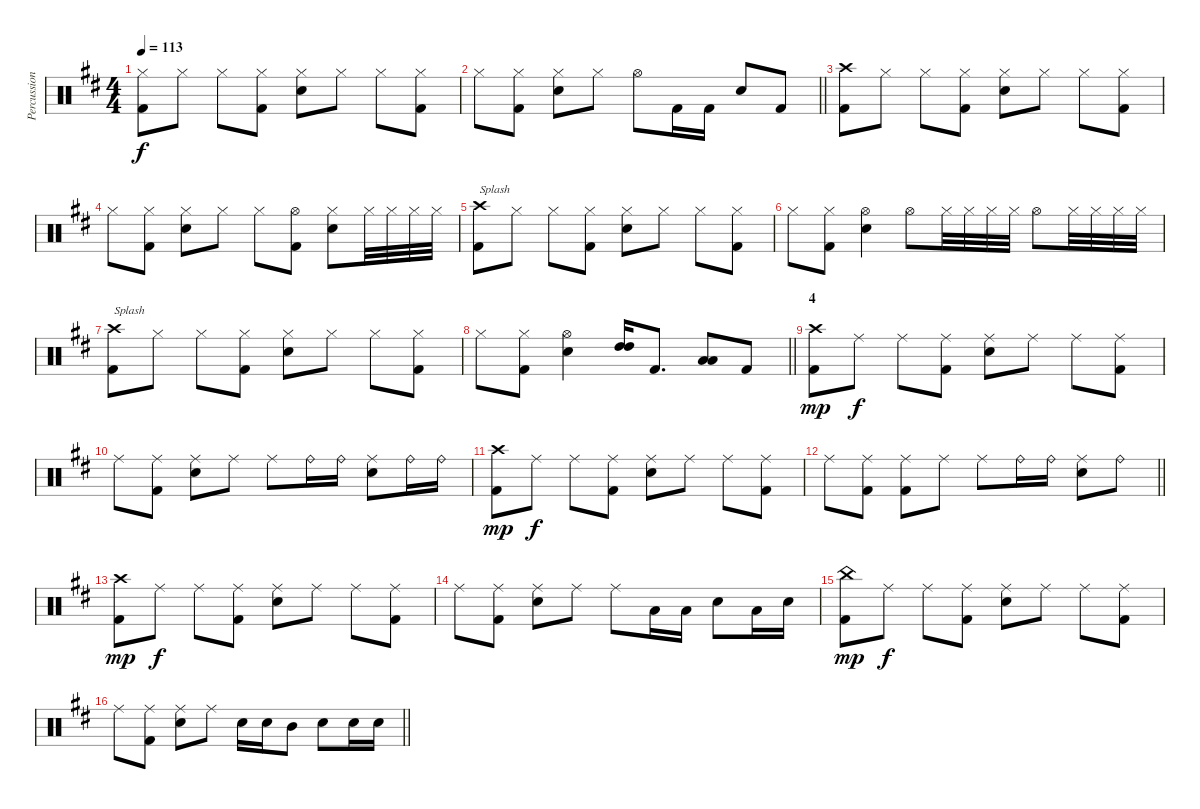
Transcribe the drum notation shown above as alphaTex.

\track ("Percussion" "Percussion") {instrument percussion}
\staff {score}
\articulation defaults
\ts (4 4)
\tempo 113
\clef neutral
\ks bminor
("Hi-Hat (closed)" "Kick (hit) 2").8{dy f} "Hi-Hat (closed)".8 "Hi-Hat (closed)".8 ("Hi-Hat (closed)" "Kick (hit) 2").8 ("Hi-Hat (closed)" "Snare (hit) 2").8 "Hi-Hat (closed)".8 "Hi-Hat (closed)".8 ("Hi-Hat (closed)" "Kick (hit) 2").8 |
\barLineRight lightlight "Hi-Hat (closed)".8
("Hi-Hat (closed)" "Kick (hit) 2").8 ("Hi-Hat (closed)" "Snare (hit) 2").8 "Hi-Hat (closed)".8 "Hi-Hat (open)".8 "Kick (hit) 2".16 "Kick (hit) 2".16 "Snare (hit) 2".8 "Kick (hit) 2".8 |
\section ("" "")
("Crash high (hit)" "Kick (hit) 2").8 "Hi-Hat (closed)".8 "Hi-Hat (closed)".8 ("Hi-Hat (closed)" "Kick (hit) 2").8 ("Hi-Hat (closed)" "Snare (hit) 2").8 "Hi-Hat (closed)".8 "Hi-Hat (closed)".8 ("Hi-Hat (closed)" "Kick (hit) 2").8 |
"Hi-Hat (closed)".8 ("Hi-Hat (closed)" "Kick (hit) 2").8 ("Hi-Hat (closed)" "Snare (hit) 2").8 "Hi-Hat (closed)".8 "Hi-Hat (closed)".8 ("Hi-Hat (open)" "Kick (hit) 2").8 ("Hi-Hat (closed)" "Snare (hit) 2").8 "Hi-Hat (closed)".32 "Hi-Hat (closed)".32 "Hi-Hat (closed)".32 "Hi-Hat (closed)".32 |
("Crash high (hit)" "Kick (hit) 2").8{txt "Splash"} "Hi-Hat (closed)".8 "Hi-Hat (closed)".8 ("Hi-Hat (closed)" "Kick (hit) 2").8 ("Hi-Hat (closed)" "Snare (hit) 2").8 "Hi-Hat (closed)".8 "Hi-Hat (closed)".8 ("Hi-Hat (closed)" "Kick (hit) 2").8 |
"Hi-Hat (closed)".8 ("Hi-Hat (closed)" "Kick (hit) 2").8 ("Hi-Hat (open)" "Snare (hit) 2").4 "Hi-Hat (open)".8 "Hi-Hat (closed)".32 "Hi-Hat (closed)".32 "Hi-Hat (closed)".32 "Hi-Hat (closed)".32 "Hi-Hat (open)".8 "Hi-Hat (closed)".32 "Hi-Hat (closed)".32 "Hi-Hat (closed)".32 "Hi-Hat (closed)".32 |
("Crash high (hit)" "Kick (hit) 2").8{txt "Splash"} "Hi-Hat (closed)".8 "Hi-Hat (closed)".8 ("Hi-Hat (closed)" "Kick (hit) 2").8 ("Hi-Hat (closed)" "Snare (hit) 2").8 "Hi-Hat (closed)".8 "Hi-Hat (closed)".8 ("Hi-Hat (closed)" "Kick (hit) 2").8 |
\barLineRight lightlight "Hi-Hat (closed)".8
("Hi-Hat (closed)" "Kick (hit) 2").8 ("Hi-Hat (open)" "Snare (hit) 2").4 ("High Tom (hit)" "High Tom (hit)").16{bu 120} "Kick (hit) 2".8{d} ("Low Tom (hit)" "Low Tom (hit)").8{bd 240} "Kick (hit) 2".8 |
\section ("" "4")
("Crash high (hit)" "Kick (hit) 2").8{dy mp} "Ride (middle)".8{dy f} "Ride (middle)".8 ("Ride (middle)" "Kick (hit) 2").8 ("Ride (middle)" "Snare (hit) 2").8 "Ride (middle)".8 "Ride (middle)".8 ("Ride (middle)" "Kick (hit) 2").8 |
"Ride (middle)".8 ("Ride (middle)" "Kick (hit) 2").8 ("Ride (middle)" "Snare (hit) 2").8 "Ride (middle)".8 "Ride (middle)".8 "Ride (bell)".16 "Ride (bell)".16 ("Ride (middle)" "Snare (hit) 2").8 "Ride (bell)".16 "Ride (bell)".16 |
("Crash high (hit)" "Kick (hit) 2").8{dy mp} "Ride (middle)".8{dy f} "Ride (middle)".8 ("Ride (middle)" "Kick (hit) 2").8 ("Ride (middle)" "Snare (hit) 2").8 "Ride (middle)".8 "Ride (middle)".8 ("Ride (middle)" "Kick (hit) 2").8 |
\barLineRight lightlight "Ride (middle)".8
("Ride (middle)" "Kick (hit) 2").8 ("Ride (middle)" "Kick (hit) 2").8 "Ride (middle)".8 "Ride (middle)".8 "Ride (bell)".16 "Ride (bell)".16 ("Ride (middle)" "Snare (hit) 2").8 "Ride (bell)".8 |
\section ("" "")
("Crash high (hit)" "Kick (hit) 2").8{dy mp} "Ride (middle)".8{dy f} "Ride (middle)".8 ("Ride (middle)" "Kick (hit) 2").8 ("Ride (middle)" "Snare (hit) 2").8 "Ride (middle)".8 "Ride (middle)".8 ("Ride (middle)" "Kick (hit) 2").8 |
"Ride (middle)".8 ("Ride (middle)" "Kick (hit) 2").8 ("Ride (middle)" "Snare (hit) 2").8 "Ride (middle)".8 "Ride (middle)".8 "Low Tom (hit)".16 "Low Tom (hit)".16 "Snare (hit) 2".8 "Low Tom (hit)".16 "Snare (hit) 2".16 |
("China (hit)" "Kick (hit) 2").8{dy mp} "Ride (middle)".8{dy f} "Ride (middle)".8 ("Ride (middle)" "Kick (hit) 2").8 ("Ride (middle)" "Snare (hit) 2").8 "Ride (middle)".8 "Ride (middle)".8 ("Ride (middle)" "Kick (hit) 2").8 |
\barLineRight lightlight "Ride (middle)".8
("Ride (middle)" "Kick (hit) 2").8 ("Ride (middle)" "Snare (hit) 2").8 "Ride (middle)".8 "Snare (hit) 2".16 "Snare (hit) 2".16 "Mid Tom (hit)".8 "Snare (hit) 2".8 "Snare (hit) 2".16 "Snare (hit) 2".16
